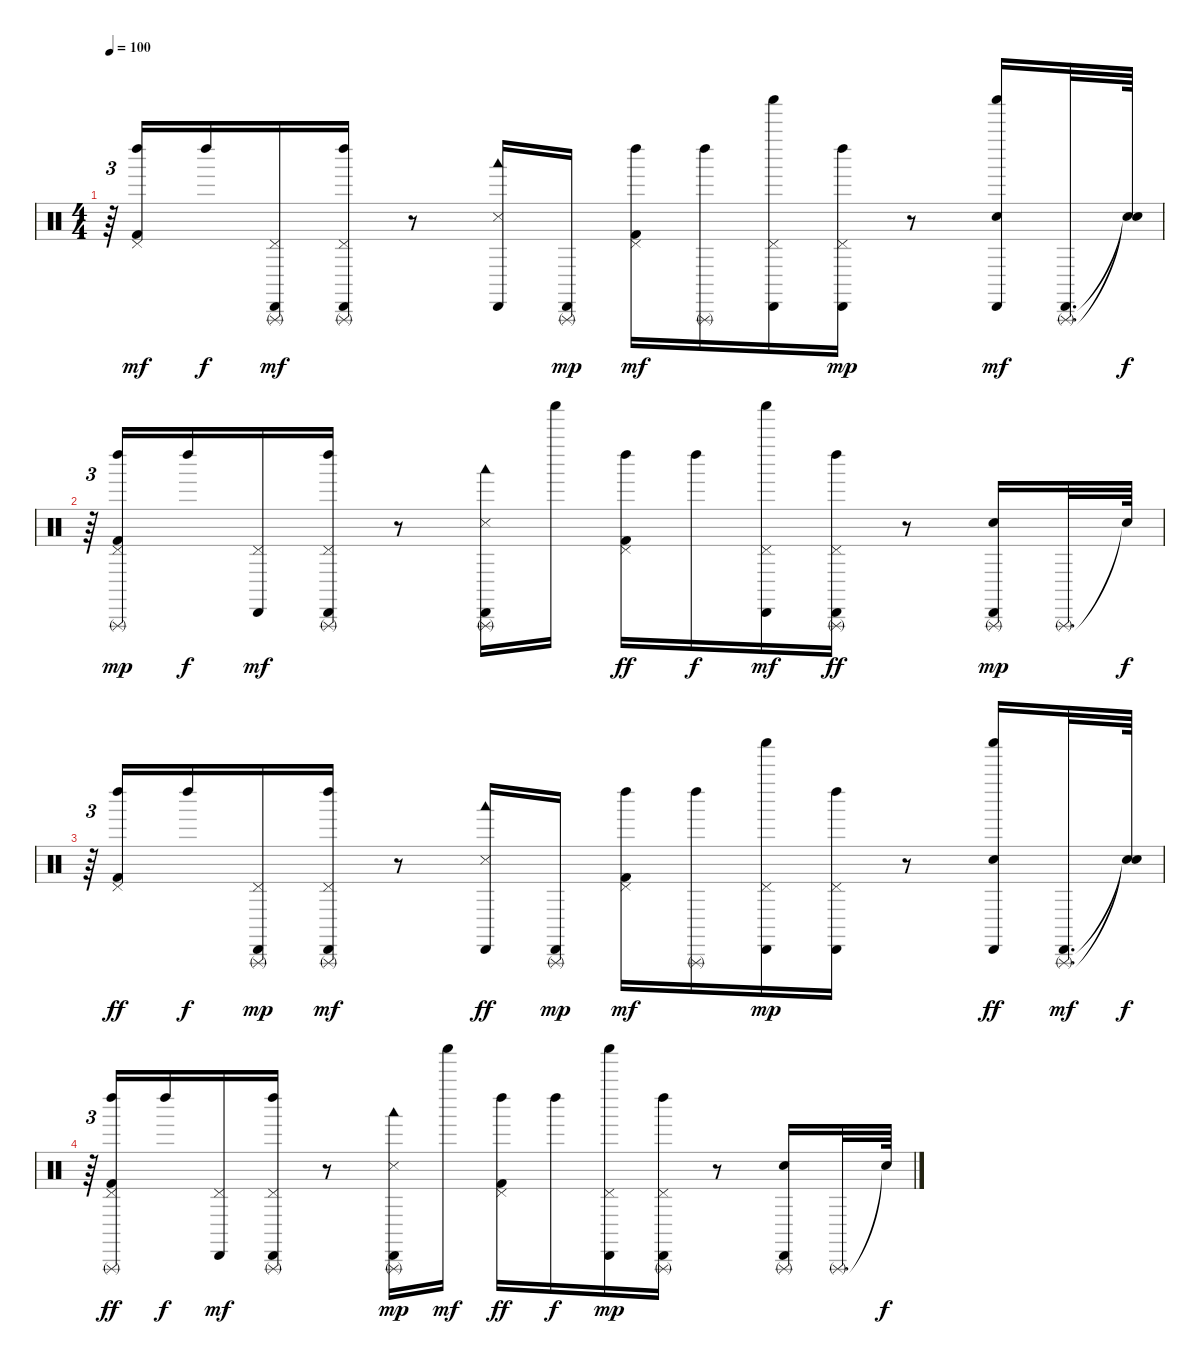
\track "" {instrument percussion}
\staff {score}
\articulation defaults
\ts (4 4)
\tempo 100
\clef neutral
\ks c
r.64{tu (3 2) dy f} ("Left Maraca (hit)" "Kick (hit) 2" "Pedal Hi-Hat (hit)").16{dy mf} "Left Maraca (hit)".16{dy f} ("Pedal Hi-Hat (hit)" "Triangle (rnute)" "Cabasa (hit)").16{dy mf} ("Cabasa (hit)" "Pedal Hi-Hat (hit)" "Left Maraca (hit)" "Triangle (rnute)").16 r.8 ("Woodblock low (hit)" "Cabasa (hit)" "Snare (side stick) 3").16 ("Cabasa (hit)" "Triangle (rnute)").16{dy mp} ("Kick (hit) 2" "Pedal Hi-Hat (hit)" "Left Maraca (hit)").16{dy mf} ("Left Maraca (hit)" "Triangle (rnute)").16 ("Pedal Hi-Hat (hit)" "Shaker (hit)" "Cabasa (hit)").16 ("Left Maraca (hit)" "Cabasa (hit)" "Pedal Hi-Hat (hit)").16{dy mp} r.8 ("Cabasa (hit)" "Snare (hit) 2" "Shaker (hit)").16{dy mf} ("Cabasa (hit)" "Triangle (rnute)").32{d} ("Snare (hit)"{t} "Snare (hit)"{t}).64{dy f} |
r.64{tu (3 2)} ("Left Maraca (hit)" "Pedal Hi-Hat (hit)" "Kick (hit) 2" "Triangle (rnute)").16{dy mp} "Left Maraca (hit)".16{dy f} ("Cabasa (hit)" "Pedal Hi-Hat (hit)").16{dy mf} ("Cabasa (hit)" "Pedal Hi-Hat (hit)" "Left Maraca (hit)" "Triangle (rnute)").16 r.8 ("Woodblock low (hit)" "Snare (side stick) 3" "Triangle (rnute)" "Cabasa (hit)").16 "Shaker (hit)".16 ("Kick (hit) 2" "Left Maraca (hit)" "Pedal Hi-Hat (hit)").16{dy ff} "Left Maraca (hit)".16{dy f} ("Shaker (hit)" "Cabasa (hit)" "Pedal Hi-Hat (hit)").16{dy mf} ("Cabasa (hit)" "Pedal Hi-Hat (hit)" "Triangle (rnute)" "Left Maraca (hit)").16{dy ff} r.8 ("Snare (hit) 2" "Triangle (rnute)" "Cabasa (hit)").16{dy mp} "Triangle (rnute)".32{d} "Snare (hit)"{t}.64{dy f} |
r.64{tu (3 2)} ("Pedal Hi-Hat (hit)" "Kick (hit) 2" "Left Maraca (hit)").16{dy ff} "Left Maraca (hit)".16{dy f} ("Cabasa (hit)" "Triangle (rnute)" "Pedal Hi-Hat (hit)").16{dy mp} ("Left Maraca (hit)" "Pedal Hi-Hat (hit)" "Cabasa (hit)" "Triangle (rnute)").16{dy mf} r.8 ("Snare (side stick) 3" "Cabasa (hit)" "Woodblock low (hit)").16{dy ff} ("Cabasa (hit)" "Triangle (rnute)").16{dy mp} ("Pedal Hi-Hat (hit)" "Left Maraca (hit)" "Kick (hit) 2").16{dy mf} ("Left Maraca (hit)" "Triangle (rnute)").16 ("Shaker (hit)" "Cabasa (hit)" "Pedal Hi-Hat (hit)").16{dy mp} ("Left Maraca (hit)" "Cabasa (hit)" "Pedal Hi-Hat (hit)").16 r.8 ("Shaker (hit)" "Cabasa (hit)" "Snare (hit) 2").16{dy ff} ("Cabasa (hit)" "Triangle (rnute)").32{d dy mf} ("Snare (hit)"{t} "Snare (hit)"{t}).64{dy f} |
r.64{tu (3 2)} ("Kick (hit) 2" "Pedal Hi-Hat (hit)" "Triangle (rnute)" "Left Maraca (hit)").16{dy ff} "Left Maraca (hit)".16{dy f} ("Pedal Hi-Hat (hit)" "Cabasa (hit)").16{dy mf} ("Cabasa (hit)" "Pedal Hi-Hat (hit)" "Left Maraca (hit)" "Triangle (rnute)").16 r.8 ("Cabasa (hit)" "Woodblock low (hit)" "Snare (side stick) 3" "Triangle (rnute)").16{dy mp} "Shaker (hit)".16{dy mf} ("Left Maraca (hit)" "Kick (hit) 2" "Pedal Hi-Hat (hit)").16{dy ff} "Left Maraca (hit)".16{dy f} ("Shaker (hit)" "Pedal Hi-Hat (hit)" "Cabasa (hit)").16{dy mp} ("Pedal Hi-Hat (hit)" "Left Maraca (hit)" "Triangle (rnute)" "Cabasa (hit)").16 r.8 ("Snare (hit) 2" "Cabasa (hit)" "Triangle (rnute)").16 "Triangle (rnute)".32{d} "Snare (hit)"{t}.64{dy f}
